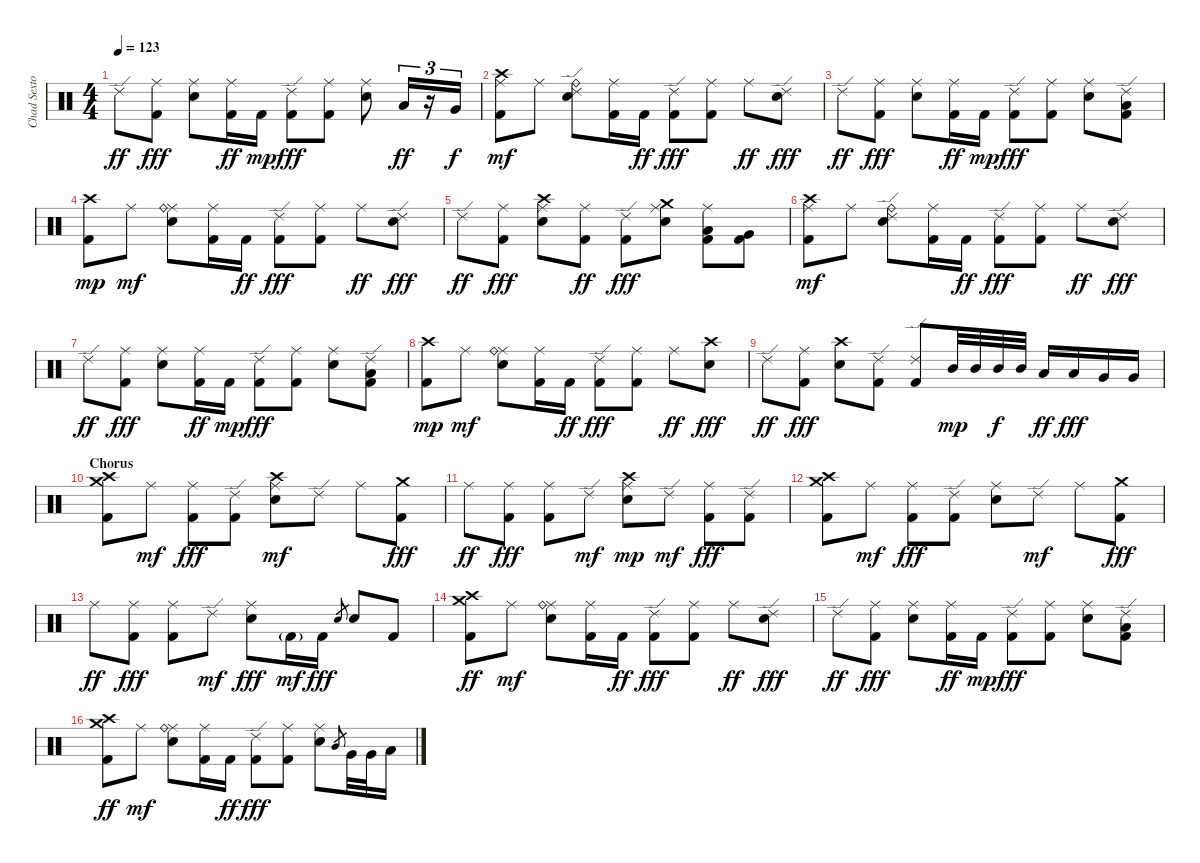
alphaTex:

\track ("Chad Sexton (Drums)" "Chad Sexto") {instrument percussion}
\staff {score}
\articulation defaults
\ts (4 4)
\tempo 123
\clef neutral
\ks c "Ride (edge) 2".8{dy ff}
("Ride (middle)" "Kick (hit) 2").8{dy fff} ("Ride (middle)" "Electric Snare (hit)").8 ("Ride (middle)" "Kick (hit) 2").16{dy ff} "Kick (hit) 2".16{dy mp} ("Ride (edge) 2" "Kick (hit) 2").8{dy fff} ("Ride (middle)" "Kick (hit) 2").8 ("Ride (middle)" "Electric Snare (hit)").8 "Low Tom (hit)".16{tu (3 2) dy ff} r.16{tu (3 2)} "Very Low Tom (hit)".16{tu (3 2) dy f} |
("Ride (middle)" "Kick (hit) 2" "Crash high (hit)").8{dy mf} "Ride (middle)".8 ("Ride (edge) 2" "Electric Snare (hit)" "Ride (bell)").8 ("Ride (middle)" "Kick (hit) 2").16 "Kick (hit) 2".16{dy ff} ("Ride (edge) 2" "Kick (hit) 2").8{dy fff} ("Ride (middle)" "Kick (hit) 2").8 "Ride (middle)".8{dy ff} ("Ride (edge) 2" "Electric Snare (hit)").8{dy fff} |
"Ride (edge) 2".8{dy ff} ("Ride (middle)" "Kick (hit) 2").8{dy fff} ("Ride (middle)" "Electric Snare (hit)").8 ("Ride (middle)" "Kick (hit) 2").16{dy ff} "Kick (hit) 2".16{dy mp} ("Ride (edge) 2" "Kick (hit) 2").8{dy fff} ("Ride (middle)" "Kick (hit) 2").8 ("Ride (middle)" "Electric Snare (hit)").8 ("Ride (edge) 2" "Kick (hit) 2" "Low Tom (hit)").8 |
("Kick (hit) 2" "Crash high (hit)").8{dy mp} "Ride (middle)".8{dy mf} ("Ride (middle)" "Electric Snare (hit)" "Ride (bell)").8 ("Ride (middle)" "Kick (hit) 2").16 "Kick (hit) 2".16{dy ff} ("Ride (edge) 2" "Kick (hit) 2").8{dy fff} ("Ride (middle)" "Kick (hit) 2").8 "Ride (middle)".8{dy ff} ("Ride (edge) 2" "Electric Snare (hit)").8{dy fff} |
"Ride (edge) 2".8{dy ff} ("Ride (middle)" "Kick (hit) 2").8{dy fff} ("Crash high (hit)" "Electric Snare (hit)" "Ride (middle)").8 ("Ride (middle)" "Kick (hit) 2").8{dy ff} ("Ride (edge) 2" "Kick (hit) 2").8{dy fff} ("Crash medium (hit)" "Electric Snare (hit)" "Ride (middle)").8 ("Ride (middle)" "Kick (hit) 2" "Low Tom (hit)").8 ("Kick (hit) 2" "Very Low Tom (hit)").8 |
("Ride (middle)" "Kick (hit) 2" "Crash high (hit)").8{dy mf} "Ride (middle)".8 ("Ride (edge) 2" "Electric Snare (hit)" "Ride (bell)").8 ("Ride (middle)" "Kick (hit) 2").16 "Kick (hit) 2".16{dy ff} ("Ride (edge) 2" "Kick (hit) 2").8{dy fff} ("Ride (middle)" "Kick (hit) 2").8 "Ride (middle)".8{dy ff} ("Ride (edge) 2" "Electric Snare (hit)").8{dy fff} |
"Ride (edge) 2".8{dy ff} ("Ride (middle)" "Kick (hit) 2").8{dy fff} ("Ride (middle)" "Electric Snare (hit)").8 ("Ride (middle)" "Kick (hit) 2").16{dy ff} "Kick (hit) 2".16{dy mp} ("Ride (edge) 2" "Kick (hit) 2").8{dy fff} ("Ride (middle)" "Kick (hit) 2").8 ("Ride (middle)" "Electric Snare (hit)").8 ("Ride (edge) 2" "Kick (hit) 2" "Low Tom (hit)").8 |
("Kick (hit) 2" "Crash high (hit)").8{dy mp} "Ride (middle)".8{dy mf} ("Ride (middle)" "Electric Snare (hit)" "Ride (bell)").8 ("Ride (middle)" "Kick (hit) 2").16 "Kick (hit) 2".16{dy ff} ("Ride (edge) 2" "Kick (hit) 2").8{dy fff} ("Ride (middle)" "Kick (hit) 2").8 "Ride (middle)".8{dy ff} ("Crash high (hit)" "Electric Snare (hit)").8{dy fff} |
"Ride (edge) 2".8{dy ff} ("Ride (middle)" "Kick (hit) 2").8{dy fff} ("Crash high (hit)" "Electric Snare (hit)").8 ("Ride (edge) 2" "Kick (hit) 2").8 ("Ride (edge) 2" "Kick (hit) 2").8 "Mid Tom (hit)".32{dy mp} "Mid Tom (hit)".32 "Mid Tom (hit)".32{dy f} "Mid Tom (hit)".32 "Low Tom (hit)".16{dy ff} "Low Tom (hit)".16{dy fff} "Very Low Tom (hit)".16 "Very Low Tom (hit)".16 |
\section ("" "Chorus")
("Crash high (hit)" "Kick (hit) 2" "Crash medium (hit)").8{volume 13} "Ride (middle)".8{dy mf} ("Ride (middle)" "Kick (hit) 2").8{dy fff} ("Ride (edge) 2" "Kick (hit) 2").8 ("Ride (middle)" "Electric Snare (hit)" "Crash high (hit)").8{dy mf} "Ride (edge) 2".8 "Ride (middle)".8 ("Crash medium (hit)" "Kick (hit) 2").8{dy fff} |
"Ride (middle)".8{dy ff} ("Ride (middle)" "Kick (hit) 2").8{dy fff} ("Ride (middle)" "Kick (hit) 2").8 "Ride (edge) 2".8{dy mf} ("Ride (middle)" "Electric Snare (hit)" "Crash high (hit)").8{dy mp} "Ride (edge) 2".8{dy mf} ("Ride (middle)" "Kick (hit) 2").8{dy fff} ("Ride (edge) 2" "Kick (hit) 2").8 |
("Crash high (hit)" "Kick (hit) 2" "Crash medium (hit)").8 "Ride (middle)".8{dy mf} ("Ride (middle)" "Kick (hit) 2").8{dy fff} ("Ride (edge) 2" "Kick (hit) 2").8 ("Ride (middle)" "Electric Snare (hit)").8 "Ride (edge) 2".8{dy mf} "Ride (middle)".8 ("Crash medium (hit)" "Kick (hit) 2").8{dy fff} |
"Ride (middle)".8{dy ff} ("Ride (middle)" "Kick (hit) 2").8{dy fff} ("Ride (middle)" "Kick (hit) 2").8 "Ride (edge) 2".8{dy mf} ("Ride (middle)" "Electric Snare (hit)").8{dy fff} "Kick (hit) 2"{g}.16{dy mf} "Kick (hit) 2".16{dy fff} "Electric Snare (hit)".8{gr} "Electric Snare (hit)".8 "Kick (hit) 2".8 |
("Crash medium (hit)" "Kick (hit) 2" "Crash high (hit)").8{dy ff} "Ride (middle)".8{dy mf} ("Ride (middle)" "Electric Snare (hit)" "Ride (bell)").8 ("Ride (middle)" "Kick (hit) 2").16 "Kick (hit) 2".16{dy ff} ("Ride (edge) 2" "Kick (hit) 2").8{dy fff} ("Ride (middle)" "Kick (hit) 2").8 "Ride (middle)".8{dy ff} ("Ride (edge) 2" "Electric Snare (hit)").8{dy fff} |
"Ride (edge) 2".8{dy ff} ("Ride (middle)" "Kick (hit) 2").8{dy fff} ("Ride (middle)" "Electric Snare (hit)").8 ("Ride (middle)" "Kick (hit) 2").16{dy ff} "Kick (hit) 2".16{dy mp} ("Ride (edge) 2" "Kick (hit) 2").8{dy fff} ("Ride (middle)" "Kick (hit) 2").8 ("Ride (middle)" "Electric Snare (hit)").8 ("Ride (edge) 2" "Kick (hit) 2" "Low Tom (hit)").8 |
("Crash medium (hit)" "Kick (hit) 2" "Crash high (hit)").8{dy ff} "Ride (middle)".8{dy mf} ("Ride (middle)" "Electric Snare (hit)" "Ride (bell)").8 ("Ride (middle)" "Kick (hit) 2").16 "Kick (hit) 2".16{dy ff} ("Ride (edge) 2" "Kick (hit) 2").8{dy fff} ("Ride (middle)" "Kick (hit) 2").8 ("Ride (middle)" "Electric Snare (hit)").8 "Mid Tom (hit)".8{gr} "Very Low Tom (hit)".32 "Very Low Tom (hit)".32 "Low Tom (hit)".16
